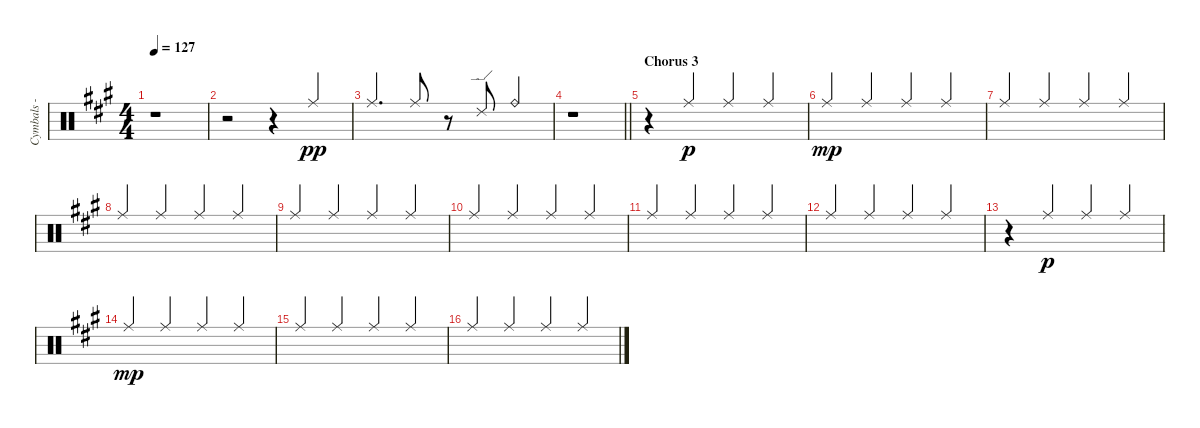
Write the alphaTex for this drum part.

\track ("Cymbals - ride" "Cymbals - ") {instrument percussion}
\staff {score}
\articulation defaults
\ts (4 4)
\tempo 127
\clef neutral
\ks a
r.1{dy p} |
r.2 r.4 "Ride (middle)".4{dy pp volume 7 beam Up} |
"Ride (middle)".4{d beam Up} "Ride (middle)".8{beam Up} r.8 "Ride (edge) 2".8{beam Up} "Ride (bell)".4{beam Up} |
\barLineRight lightlight
r.1 |
\section ("" "Chorus 3")
r.4 "Ride (middle)".4{dy p volume 13 beam Up} "Ride (middle)".4{beam Up} "Ride (middle)".4{beam Up} |
"Ride (middle)".4{dy mp beam Up} "Ride (middle)".4{beam Up} "Ride (middle)".4{beam Up} "Ride (middle)".4{beam Up} |
"Ride (middle)".4{beam Up} "Ride (middle)".4{beam Up} "Ride (middle)".4{beam Up} "Ride (middle)".4{beam Up} |
"Ride (middle)".4{beam Up} "Ride (middle)".4{beam Up} "Ride (middle)".4{beam Up} "Ride (middle)".4{beam Up} |
"Ride (middle)".4{beam Up} "Ride (middle)".4{beam Up} "Ride (middle)".4{beam Up} "Ride (middle)".4{beam Up} |
"Ride (middle)".4{beam Up} "Ride (middle)".4{beam Up} "Ride (middle)".4{beam Up} "Ride (middle)".4{beam Up} |
"Ride (middle)".4{beam Up} "Ride (middle)".4{beam Up} "Ride (middle)".4{beam Up} "Ride (middle)".4{beam Up} |
"Ride (middle)".4{beam Up} "Ride (middle)".4{beam Up} "Ride (middle)".4{beam Up} "Ride (middle)".4{beam Up} |
r.4 "Ride (middle)".4{dy p beam Up} "Ride (middle)".4{beam Up} "Ride (middle)".4{beam Up} |
"Ride (middle)".4{dy mp beam Up} "Ride (middle)".4{beam Up} "Ride (middle)".4{beam Up} "Ride (middle)".4{beam Up} |
"Ride (middle)".4{beam Up} "Ride (middle)".4{beam Up} "Ride (middle)".4{beam Up} "Ride (middle)".4{beam Up} |
"Ride (middle)".4{beam Up} "Ride (middle)".4{beam Up} "Ride (middle)".4{beam Up} "Ride (middle)".4{beam Up}
